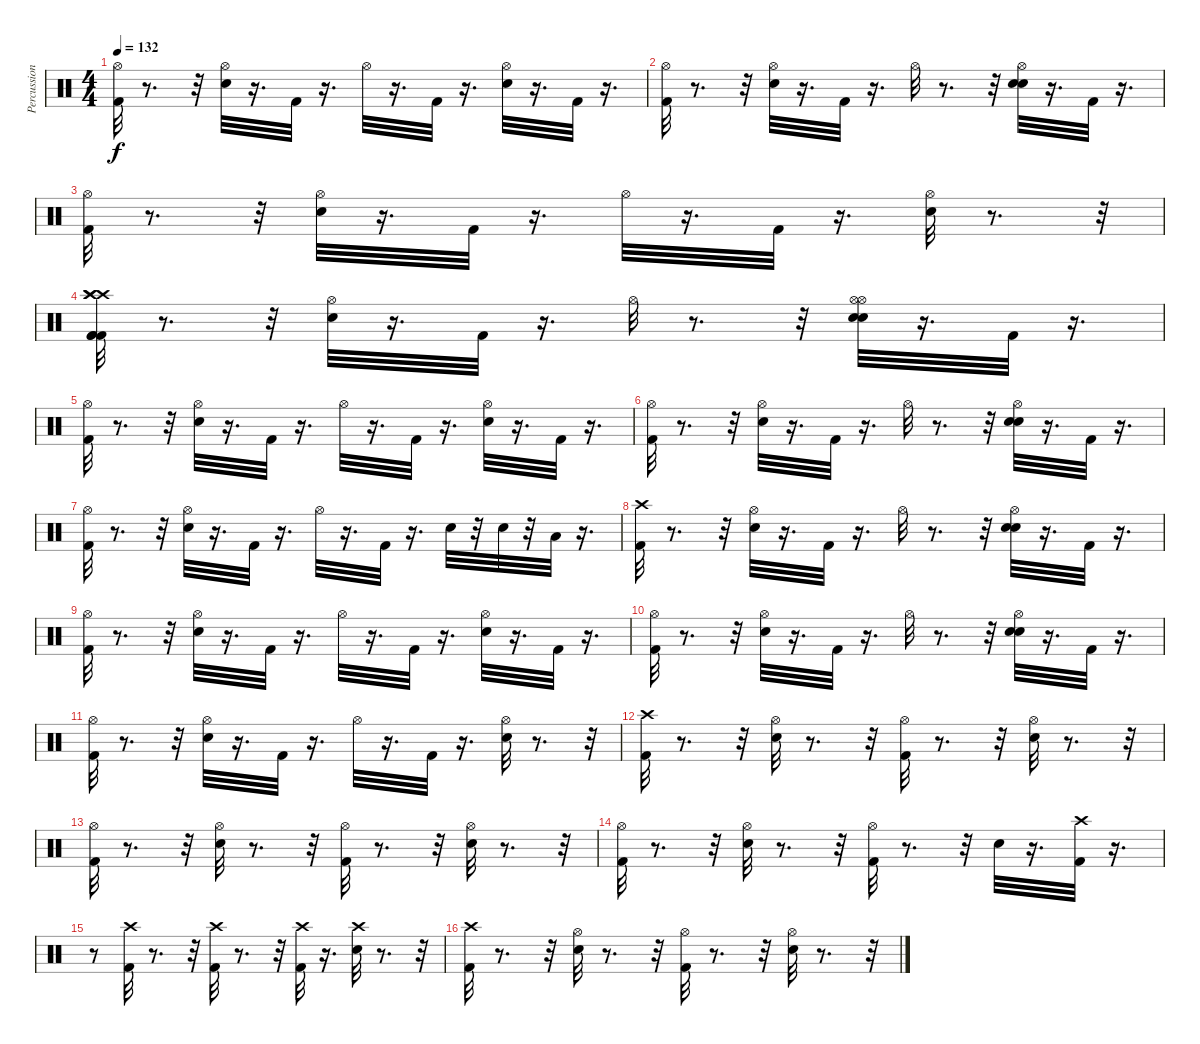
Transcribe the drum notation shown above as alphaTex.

\track ("Percussion" "Percussion") {instrument percussion}
\staff {score}
\articulation defaults
\ts (4 4)
\tempo 132
\clef neutral
\ks c
("Kick (hit) 2" "Hi-Hat (open)").32{dy f} r.8{d} r.32 ("Snare (hit) 2" "Hi-Hat (open)").32 r.16{d} "Kick (hit) 2".32 r.16{d} "Hi-Hat (open)".32 r.16{d} "Kick (hit) 2".32 r.16{d} ("Hi-Hat (open)" "Snare (hit) 2").32 r.16{d} "Kick (hit) 2".32 r.16{d} |
("Hi-Hat (open)" "Kick (hit) 2").32 r.8{d} r.32 ("Snare (hit) 2" "Hi-Hat (open)").32 r.16{d} "Kick (hit) 2".32 r.16{d} "Hi-Hat (open)".32 r.8{d} r.32 ("Snare (hit) 2" "Snare (hit) 2" "Hi-Hat (open)").32 r.16{d} "Kick (hit) 2".32 r.16{d} |
("Hi-Hat (open)" "Kick (hit) 2").32 r.8{d} r.32 ("Snare (hit) 2" "Hi-Hat (open)").32 r.16{d} "Kick (hit) 2".32 r.16{d} "Hi-Hat (open)".32 r.16{d} "Kick (hit) 2".32 r.16{d} ("Snare (hit) 2" "Hi-Hat (open)").32 r.8{d} r.32 |
("Kick (hit) 2" "Crash high (hit)" "Kick (hit) 2" "Crash high (hit)" "Kick (hit) 2" "Crash high (hit)").32 r.8{d} r.32 ("Snare (hit) 2" "Hi-Hat (open)").32 r.16{d} "Kick (hit) 2".32 r.16{d} "Hi-Hat (open)".32 r.8{d} r.32 ("Snare (hit) 2" "Hi-Hat (open)" "Snare (hit) 2" "Hi-Hat (open)").32 r.16{d} "Kick (hit) 2".32 r.16{d} |
("Kick (hit) 2" "Hi-Hat (open)").32 r.8{d} r.32 ("Snare (hit) 2" "Hi-Hat (open)").32 r.16{d} "Kick (hit) 2".32 r.16{d} "Hi-Hat (open)".32 r.16{d} "Kick (hit) 2".32 r.16{d} ("Snare (hit) 2" "Hi-Hat (open)").32 r.16{d} "Kick (hit) 2".32 r.16{d} |
("Hi-Hat (open)" "Kick (hit) 2").32 r.8{d} r.32 ("Snare (hit) 2" "Hi-Hat (open)").32 r.16{d} "Kick (hit) 2".32 r.16{d} "Hi-Hat (open)".32 r.8{d} r.32 ("Snare (hit) 2" "Hi-Hat (open)" "Snare (hit) 2").32 r.16{d} "Kick (hit) 2".32 r.16{d} |
("Kick (hit) 2" "Hi-Hat (open)").32 r.8{d} r.32 ("Snare (hit) 2" "Hi-Hat (open)").32 r.16{d} "Kick (hit) 2".32 r.16{d} "Hi-Hat (open)".32 r.16{d} "Kick (hit) 2".32 r.16{d} "Snare (hit) 2".32 r.32 "Snare (hit) 2".32 r.32 "Low Floor Tom (hit)".32 r.16{d} |
("Kick (hit) 2" "Crash high (hit)").32 r.8{d} r.32 ("Snare (hit) 2" "Hi-Hat (open)").32 r.16{d} "Kick (hit) 2".32 r.16{d} "Hi-Hat (open)".32 r.8{d} r.32 ("Snare (hit) 2" "Snare (hit) 2" "Hi-Hat (open)").32 r.16{d} "Kick (hit) 2".32 r.16{d} |
("Kick (hit) 2" "Hi-Hat (open)").32 r.8{d} r.32 ("Snare (hit) 2" "Hi-Hat (open)").32 r.16{d} "Kick (hit) 2".32 r.16{d} "Hi-Hat (open)".32 r.16{d} "Kick (hit) 2".32 r.16{d} ("Hi-Hat (open)" "Snare (hit) 2").32 r.16{d} "Kick (hit) 2".32 r.16{d} |
("Hi-Hat (open)" "Kick (hit) 2").32 r.8{d} r.32 ("Snare (hit) 2" "Hi-Hat (open)").32 r.16{d} "Kick (hit) 2".32 r.16{d} "Hi-Hat (open)".32 r.8{d} r.32 ("Snare (hit) 2" "Snare (hit) 2" "Hi-Hat (open)").32 r.16{d} "Kick (hit) 2".32 r.16{d} |
("Hi-Hat (open)" "Kick (hit) 2").32 r.8{d} r.32 ("Snare (hit) 2" "Hi-Hat (open)").32 r.16{d} "Kick (hit) 2".32 r.16{d} "Hi-Hat (open)".32 r.16{d} "Kick (hit) 2".32 r.16{d} ("Snare (hit) 2" "Hi-Hat (open)").32 r.8{d} r.32 |
("Kick (hit) 2" "Crash high (hit)").32 r.8{d} r.32 ("Snare (hit) 2" "Hi-Hat (open)").32 r.8{d} r.32 ("Kick (hit) 2" "Hi-Hat (open)").32 r.8{d} r.32 ("Hi-Hat (open)" "Snare (hit) 2").32 r.8{d} r.32 |
("Kick (hit) 2" "Hi-Hat (open)").32 r.8{d} r.32 ("Snare (hit) 2" "Hi-Hat (open)").32 r.8{d} r.32 ("Kick (hit) 2" "Hi-Hat (open)").32 r.8{d} r.32 ("Hi-Hat (open)" "Snare (hit) 2").32 r.8{d} r.32 |
("Kick (hit) 2" "Hi-Hat (open)").32 r.8{d} r.32 ("Hi-Hat (open)" "Snare (hit) 2").32 r.8{d} r.32 ("Kick (hit) 2" "Hi-Hat (open)").32 r.8{d} r.32 "Snare (hit) 2".32 r.16{d} ("Kick (hit) 2" "Crash high (hit)").32 r.16{d} |
r.8 ("Kick (hit) 2" "Crash high (hit)").32 r.8{d} r.32 ("Kick (hit) 2" "Crash high (hit)").32 r.8{d} r.32 ("Kick (hit) 2" "Crash high (hit)").32 r.16{d} ("Snare (hit) 2" "Crash high (hit)").32 r.8{d} r.32 |
("Crash high (hit)" "Kick (hit) 2").32 r.8{d} r.32 ("Hi-Hat (open)" "Snare (hit) 2").32 r.8{d} r.32 ("Hi-Hat (open)" "Kick (hit) 2").32 r.8{d} r.32 ("Hi-Hat (open)" "Snare (hit) 2").32 r.8{d} r.32
